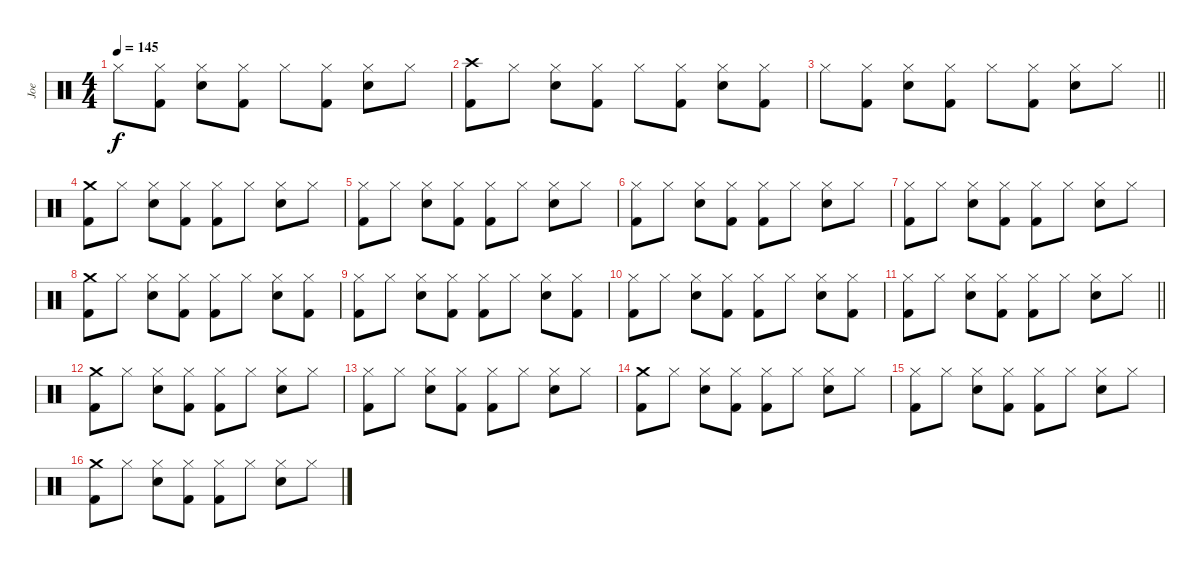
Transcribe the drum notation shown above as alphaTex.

\track ("Joe" "Joe") {instrument percussion}
\staff {score}
\articulation defaults
\ts (4 4)
\tempo 145
\clef neutral
\ks c "Hi-Hat (closed)".8{dy f}
("Hi-Hat (closed)" "Kick (hit) 2").8 ("Hi-Hat (closed)" "Snare (hit) 2").8 ("Hi-Hat (closed)" "Kick (hit) 2").8 "Hi-Hat (closed)".8 ("Hi-Hat (closed)" "Kick (hit) 2").8 ("Hi-Hat (closed)" "Snare (hit) 2").8 "Hi-Hat (closed)".8 |
("Crash high (hit)" "Kick (hit) 2").8 "Hi-Hat (closed)".8 ("Hi-Hat (closed)" "Snare (hit) 2").8 ("Hi-Hat (closed)" "Kick (hit) 2").8 "Hi-Hat (closed)".8 ("Hi-Hat (closed)" "Kick (hit) 2").8 ("Hi-Hat (closed)" "Snare (hit) 2").8 ("Hi-Hat (closed)" "Kick (hit) 2").8 |
\barLineRight lightlight "Hi-Hat (closed)".8
("Hi-Hat (closed)" "Kick (hit) 2").8 ("Hi-Hat (closed)" "Snare (hit) 2").8 ("Hi-Hat (closed)" "Kick (hit) 2").8 "Hi-Hat (closed)".8 ("Hi-Hat (closed)" "Kick (hit) 2").8 ("Hi-Hat (closed)" "Snare (hit) 2").8 "Hi-Hat (closed)".8 |
\section ("" "")
("Crash medium (hit)" "Kick (hit) 2").8 "Hi-Hat (closed)".8 ("Hi-Hat (closed)" "Snare (hit) 2").8 ("Hi-Hat (closed)" "Kick (hit) 2").8 ("Hi-Hat (closed)" "Kick (hit) 2").8 "Hi-Hat (closed)".8 ("Hi-Hat (closed)" "Snare (hit) 2").8 "Hi-Hat (closed)".8 |
("Hi-Hat (closed)" "Kick (hit) 2").8 "Hi-Hat (closed)".8 ("Hi-Hat (closed)" "Snare (hit) 2").8 ("Hi-Hat (closed)" "Kick (hit) 2").8 ("Hi-Hat (closed)" "Kick (hit) 2").8 "Hi-Hat (closed)".8 ("Hi-Hat (closed)" "Snare (hit) 2").8 "Hi-Hat (closed)".8 |
("Hi-Hat (closed)" "Kick (hit) 2").8 "Hi-Hat (closed)".8 ("Hi-Hat (closed)" "Snare (hit) 2").8 ("Hi-Hat (closed)" "Kick (hit) 2").8 ("Hi-Hat (closed)" "Kick (hit) 2").8 "Hi-Hat (closed)".8 ("Hi-Hat (closed)" "Snare (hit) 2").8 "Hi-Hat (closed)".8 |
("Hi-Hat (closed)" "Kick (hit) 2").8 "Hi-Hat (closed)".8 ("Hi-Hat (closed)" "Snare (hit) 2").8 ("Hi-Hat (closed)" "Kick (hit) 2").8 ("Hi-Hat (closed)" "Kick (hit) 2").8 "Hi-Hat (closed)".8 ("Hi-Hat (closed)" "Snare (hit) 2").8 "Hi-Hat (closed)".8 |
("Crash medium (hit)" "Kick (hit) 2").8 "Hi-Hat (closed)".8 ("Hi-Hat (closed)" "Snare (hit) 2").8 ("Hi-Hat (closed)" "Kick (hit) 2").8 ("Hi-Hat (closed)" "Kick (hit) 2").8 "Hi-Hat (closed)".8 ("Hi-Hat (closed)" "Snare (hit) 2").8 ("Hi-Hat (closed)" "Kick (hit) 2").8 |
("Hi-Hat (closed)" "Kick (hit) 2").8 "Hi-Hat (closed)".8 ("Hi-Hat (closed)" "Snare (hit) 2").8 ("Hi-Hat (closed)" "Kick (hit) 2").8 ("Hi-Hat (closed)" "Kick (hit) 2").8 "Hi-Hat (closed)".8 ("Hi-Hat (closed)" "Snare (hit) 2").8 ("Hi-Hat (closed)" "Kick (hit) 2").8 |
("Hi-Hat (closed)" "Kick (hit) 2").8 "Hi-Hat (closed)".8 ("Hi-Hat (closed)" "Snare (hit) 2").8 ("Hi-Hat (closed)" "Kick (hit) 2").8 ("Hi-Hat (closed)" "Kick (hit) 2").8 "Hi-Hat (closed)".8 ("Hi-Hat (closed)" "Snare (hit) 2").8 ("Hi-Hat (closed)" "Kick (hit) 2").8 |
\barLineRight lightlight
("Hi-Hat (closed)" "Kick (hit) 2").8 "Hi-Hat (closed)".8 ("Hi-Hat (closed)" "Snare (hit) 2").8 ("Hi-Hat (closed)" "Kick (hit) 2").8 ("Hi-Hat (closed)" "Kick (hit) 2").8 "Hi-Hat (closed)".8 ("Hi-Hat (closed)" "Snare (hit) 2").8 "Hi-Hat (closed)".8 |
\section ("" "")
("Crash medium (hit)" "Kick (hit) 2").8 "Hi-Hat (closed)".8 ("Hi-Hat (closed)" "Snare (hit) 2").8 ("Hi-Hat (closed)" "Kick (hit) 2").8 ("Hi-Hat (closed)" "Kick (hit) 2").8 "Hi-Hat (closed)".8 ("Hi-Hat (closed)" "Snare (hit) 2").8 "Hi-Hat (closed)".8 |
("Hi-Hat (closed)" "Kick (hit) 2").8 "Hi-Hat (closed)".8 ("Hi-Hat (closed)" "Snare (hit) 2").8 ("Hi-Hat (closed)" "Kick (hit) 2").8 ("Hi-Hat (closed)" "Kick (hit) 2").8 "Hi-Hat (closed)".8 ("Hi-Hat (closed)" "Snare (hit) 2").8 "Hi-Hat (closed)".8 |
("Crash medium (hit)" "Kick (hit) 2").8 "Hi-Hat (closed)".8 ("Hi-Hat (closed)" "Snare (hit) 2").8 ("Hi-Hat (closed)" "Kick (hit) 2").8 ("Hi-Hat (closed)" "Kick (hit) 2").8 "Hi-Hat (closed)".8 ("Hi-Hat (closed)" "Snare (hit) 2").8 "Hi-Hat (closed)".8 |
("Hi-Hat (closed)" "Kick (hit) 2").8 "Hi-Hat (closed)".8 ("Hi-Hat (closed)" "Snare (hit) 2").8 ("Hi-Hat (closed)" "Kick (hit) 2").8 ("Hi-Hat (closed)" "Kick (hit) 2").8 "Hi-Hat (closed)".8 ("Hi-Hat (closed)" "Snare (hit) 2").8 "Hi-Hat (closed)".8 |
("Crash medium (hit)" "Kick (hit) 2").8 "Hi-Hat (closed)".8 ("Hi-Hat (closed)" "Snare (hit) 2").8 ("Hi-Hat (closed)" "Kick (hit) 2").8 ("Hi-Hat (closed)" "Kick (hit) 2").8 "Hi-Hat (closed)".8 ("Hi-Hat (closed)" "Snare (hit) 2").8 "Hi-Hat (closed)".8
